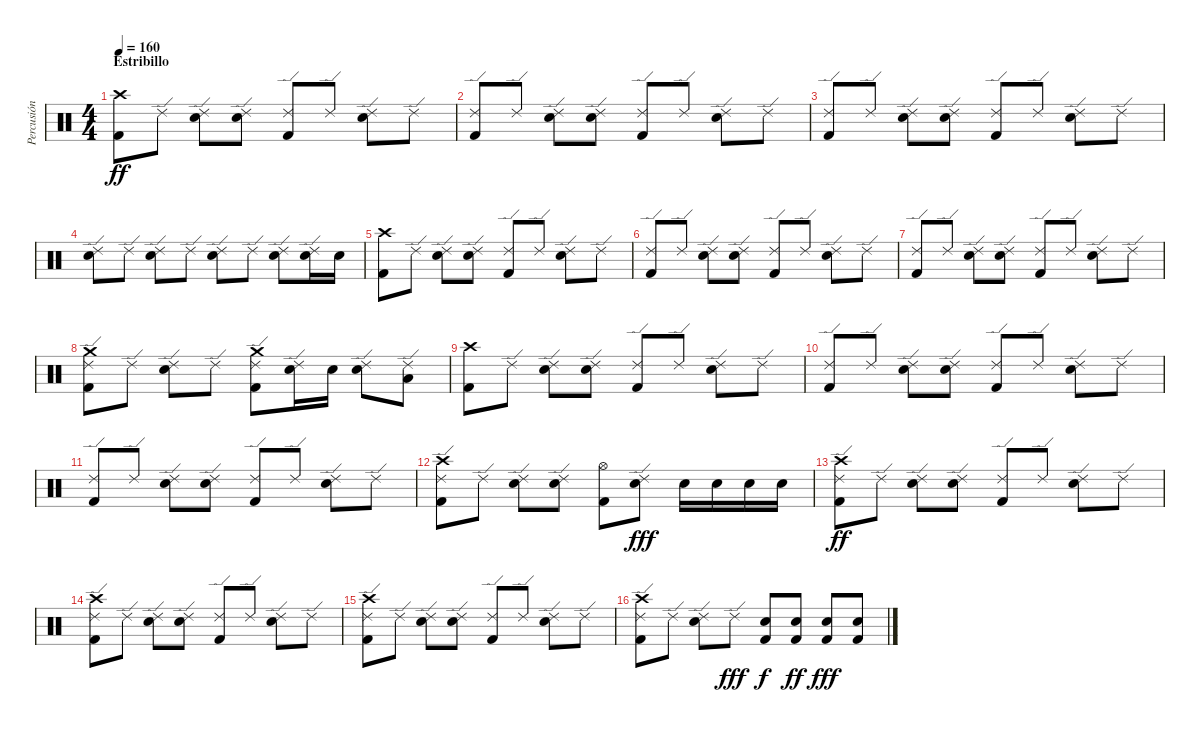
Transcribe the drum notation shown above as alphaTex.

\track ("Percusión" "Percusión") {instrument percussion}
\staff {score}
\articulation defaults
\ts (4 4)
\section ("" "Estribillo")
\tempo 160
\clef neutral
\ks c
("Crash high (hit)" "Kick (hit) 2").8{dy ff} "Ride (edge) 2".8 ("Ride (edge) 2" "Electric Snare (hit)").8 ("Ride (edge) 2" "Electric Snare (hit)").8 ("Ride (edge) 2" "Kick (hit) 2").8 "Ride (edge) 2".8 ("Ride (edge) 2" "Electric Snare (hit)").8 "Ride (edge) 2".8 |
("Ride (edge) 2" "Kick (hit) 2").8 "Ride (edge) 2".8 ("Ride (edge) 2" "Electric Snare (hit)").8 ("Ride (edge) 2" "Electric Snare (hit)").8 ("Ride (edge) 2" "Kick (hit) 2").8 "Ride (edge) 2".8 ("Ride (edge) 2" "Electric Snare (hit)").8 "Ride (edge) 2".8 |
("Ride (edge) 2" "Kick (hit) 2").8 "Ride (edge) 2".8 ("Ride (edge) 2" "Electric Snare (hit)").8 ("Ride (edge) 2" "Electric Snare (hit)").8 ("Ride (edge) 2" "Kick (hit) 2").8 "Ride (edge) 2".8 ("Ride (edge) 2" "Electric Snare (hit)").8 "Ride (edge) 2".8 |
("Ride (edge) 2" "Electric Snare (hit)").8 "Ride (edge) 2".8 ("Ride (edge) 2" "Electric Snare (hit)").8 "Ride (edge) 2".8 ("Ride (edge) 2" "Electric Snare (hit)").8 "Ride (edge) 2".8 ("Ride (edge) 2" "Electric Snare (hit)").8 ("Ride (edge) 2" "Electric Snare (hit)").16 "Electric Snare (hit)".16 |
("Crash high (hit)" "Kick (hit) 2").8 "Ride (edge) 2".8 ("Ride (edge) 2" "Electric Snare (hit)").8 ("Ride (edge) 2" "Electric Snare (hit)").8 ("Ride (edge) 2" "Kick (hit) 2").8 "Ride (edge) 2".8 ("Ride (edge) 2" "Electric Snare (hit)").8 "Ride (edge) 2".8 |
("Ride (edge) 2" "Kick (hit) 2").8 "Ride (edge) 2".8 ("Ride (edge) 2" "Electric Snare (hit)").8 ("Ride (edge) 2" "Electric Snare (hit)").8 ("Ride (edge) 2" "Kick (hit) 2").8 "Ride (edge) 2".8 ("Ride (edge) 2" "Electric Snare (hit)").8 "Ride (edge) 2".8 |
("Ride (edge) 2" "Kick (hit) 2").8 "Ride (edge) 2".8 ("Ride (edge) 2" "Electric Snare (hit)").8 ("Ride (edge) 2" "Electric Snare (hit)").8 ("Ride (edge) 2" "Kick (hit) 2").8 "Ride (edge) 2".8 ("Ride (edge) 2" "Electric Snare (hit)").8 "Ride (edge) 2".8 |
("Ride (edge) 2" "Kick (hit) 2" "Crash medium (hit)").8 "Ride (edge) 2".8 ("Ride (edge) 2" "Electric Snare (hit)").8 "Ride (edge) 2".8 ("Ride (edge) 2" "Kick (hit) 2" "Crash medium (hit)").8 ("Ride (edge) 2" "Electric Snare (hit)").16 "Electric Snare (hit)".16 ("Ride (edge) 2" "Electric Snare (hit)").8 ("Ride (edge) 2" "Low Tom (hit)").8 |
("Crash high (hit)" "Kick (hit) 2").8 "Ride (edge) 2".8 ("Ride (edge) 2" "Electric Snare (hit)").8 ("Ride (edge) 2" "Electric Snare (hit)").8 ("Ride (edge) 2" "Kick (hit) 2").8 "Ride (edge) 2".8 ("Ride (edge) 2" "Electric Snare (hit)").8 "Ride (edge) 2".8 |
("Ride (edge) 2" "Kick (hit) 2").8 "Ride (edge) 2".8 ("Ride (edge) 2" "Electric Snare (hit)").8 ("Ride (edge) 2" "Electric Snare (hit)").8 ("Ride (edge) 2" "Kick (hit) 2").8 "Ride (edge) 2".8 ("Ride (edge) 2" "Electric Snare (hit)").8 "Ride (edge) 2".8 |
("Ride (edge) 2" "Kick (hit) 2").8 "Ride (edge) 2".8 ("Ride (edge) 2" "Electric Snare (hit)").8 ("Ride (edge) 2" "Electric Snare (hit)").8 ("Ride (edge) 2" "Kick (hit) 2").8 "Ride (edge) 2".8 ("Ride (edge) 2" "Electric Snare (hit)").8 "Ride (edge) 2".8 |
("Ride (edge) 2" "Kick (hit) 2" "Crash high (hit)").8 "Ride (edge) 2".8 ("Ride (edge) 2" "Electric Snare (hit)").8 ("Ride (edge) 2" "Electric Snare (hit)").8 ("Hi-Hat (open)" "Kick (hit) 2").8 ("Ride (edge) 2" "Electric Snare (hit)").8{dy fff} "Electric Snare (hit)".16 "Electric Snare (hit)".16 "Electric Snare (hit)".16 "Electric Snare (hit)".16 |
("Ride (edge) 2" "Kick (hit) 2" "Crash high (hit)").8{dy ff} "Ride (edge) 2".8 ("Ride (edge) 2" "Electric Snare (hit)").8 ("Ride (edge) 2" "Electric Snare (hit)").8 ("Ride (edge) 2" "Kick (hit) 2").8 "Ride (edge) 2".8 ("Ride (edge) 2" "Electric Snare (hit)").8 "Ride (edge) 2".8 |
("Ride (edge) 2" "Kick (hit) 2" "Crash high (hit)").8 "Ride (edge) 2".8 ("Ride (edge) 2" "Electric Snare (hit)").8 ("Ride (edge) 2" "Electric Snare (hit)").8 ("Ride (edge) 2" "Kick (hit) 2").8 "Ride (edge) 2".8 ("Ride (edge) 2" "Electric Snare (hit)").8 "Ride (edge) 2".8 |
("Ride (edge) 2" "Kick (hit) 2" "Crash high (hit)").8 "Ride (edge) 2".8 ("Ride (edge) 2" "Electric Snare (hit)").8 ("Ride (edge) 2" "Electric Snare (hit)").8 ("Ride (edge) 2" "Kick (hit) 2").8 "Ride (edge) 2".8 ("Ride (edge) 2" "Electric Snare (hit)").8 "Ride (edge) 2".8 |
("Ride (edge) 2" "Kick (hit) 2" "Crash high (hit)").8 "Ride (edge) 2".8 ("Ride (edge) 2" "Electric Snare (hit)").8 "Ride (edge) 2".8{dy fff} ("Electric Snare (hit)" "Kick (hit) 2").8{dy f} ("Electric Snare (hit)" "Kick (hit) 2").8{dy ff} ("Electric Snare (hit)" "Kick (hit) 2").8{dy fff} ("Electric Snare (hit)" "Kick (hit) 2").8
